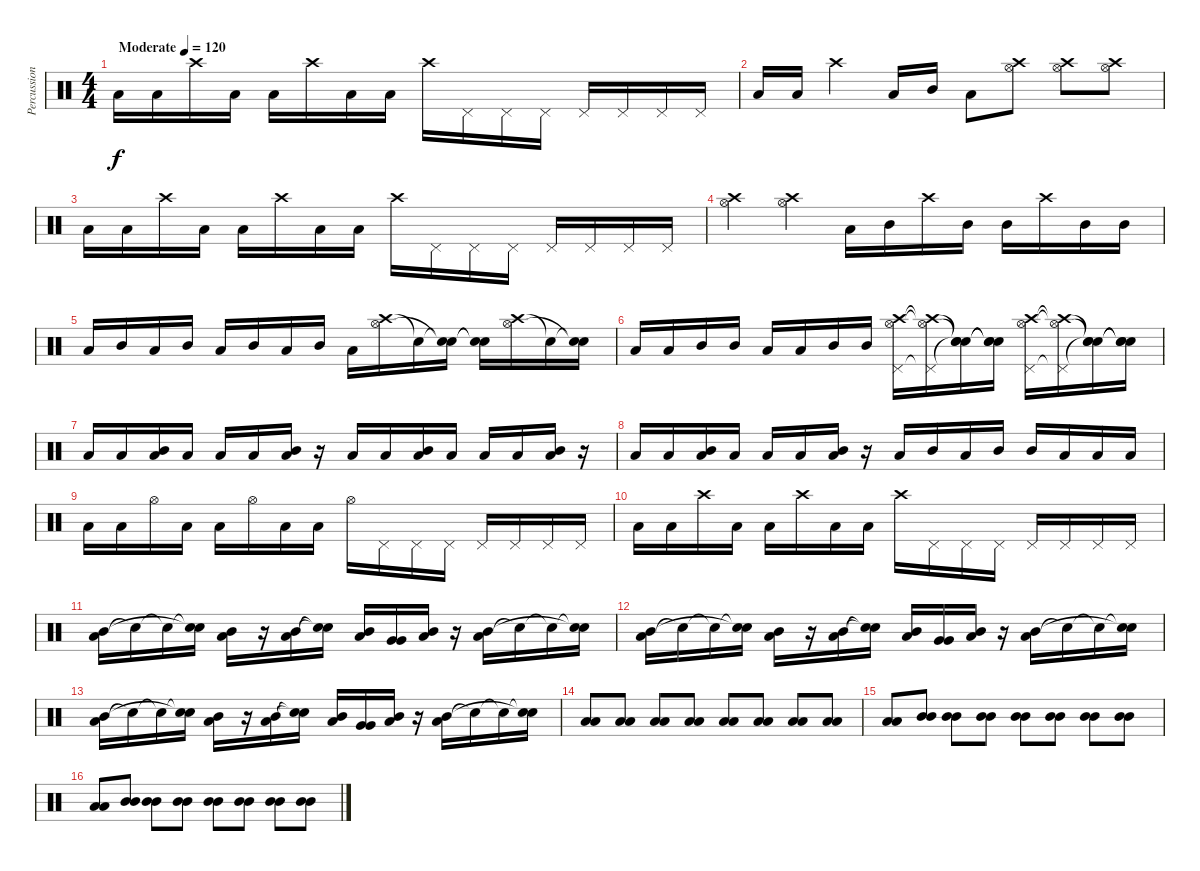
\track ("Percussion" "Percussion") {instrument percussion}
\staff {score}
\articulation defaults
\ts (4 4)
\tempo (120 "Moderate")
\clef neutral
\ks c "Low Tom (hit)".16{dy f} "Low Tom (hit)".16 "Crash high (hit)".16 "Low Tom (hit)".16 "Low Tom (hit)".16 "Crash high (hit)".16 "Low Tom (hit)".16 "Low Tom (hit)".16 "Crash high (hit)".16 "Pedal Hi-Hat (hit)".16 "Pedal Hi-Hat (hit)".16 "Pedal Hi-Hat (hit)".16 "Pedal Hi-Hat (hit)".16 "Pedal Hi-Hat (hit)".16 "Pedal Hi-Hat (hit)".16 "Pedal Hi-Hat (hit)".16
|
"Low Tom (hit)".16 "Low Tom (hit)".16 "Crash high (hit)".4 "Low Tom (hit)".16 "Mid Tom (hit)".16 "Low Tom (hit)".8 ("Hi-Hat (open)" "Crash high (hit)").8 ("Hi-Hat (open)" "Crash high (hit)").8 ("Hi-Hat (open)" "Crash high (hit)").8 |
"Low Tom (hit)".16 "Low Tom (hit)".16 "Crash high (hit)".16 "Low Tom (hit)".16 "Low Tom (hit)".16 "Crash high (hit)".16 "Low Tom (hit)".16 "Low Tom (hit)".16 "Crash high (hit)".16 "Pedal Hi-Hat (hit)".16 "Pedal Hi-Hat (hit)".16 "Pedal Hi-Hat (hit)".16 "Pedal Hi-Hat (hit)".16 "Pedal Hi-Hat (hit)".16 "Pedal Hi-Hat (hit)".16 "Pedal Hi-Hat (hit)".16 |
("Crash high (hit)" "Hi-Hat (open)").4 ("Crash high (hit)" "Hi-Hat (open)").4 "Low Tom (hit)".16 "Mid Tom (hit)".16 "Crash high (hit)".16 "Mid Tom (hit)".16 "Mid Tom (hit)".16 "Crash high (hit)".16 "Mid Tom (hit)".16 "Mid Tom (hit)".16 |
"Low Tom (hit)".16 "Mid Tom (hit)".16 "Low Tom (hit)".16 "Mid Tom (hit)".16 "Low Tom (hit)".16 "Mid Tom (hit)".16 "Low Tom (hit)".16 "Mid Tom (hit)".16 "Low Tom (hit)".16 ("Crash high (hit)" "Hi-Hat (open)").16 "Snare (hit)"{t}.16 ("Snare (hit)"{t} "Snare (hit)"{t}).16 ("Snare (hit)"{t} "Snare (hit)"{t}).16 ("Crash high (hit)" "Hi-Hat (open)").16 "Snare (hit)"{t}.16 ("Snare (hit)"{t} "Snare (hit)"{t}).16 |
"Low Tom (hit)".16 "Low Tom (hit)".16 "Mid Tom (hit)".16 "Mid Tom (hit)".16 "Low Tom (hit)".16 "Low Tom (hit)".16 "Mid Tom (hit)".16 "Mid Tom (hit)".16 ("Crash high (hit)" "Hi-Hat (open)" "Pedal Hi-Hat (hit)").16 ("Crash high (hit)"{t} "Hi-Hat (open)"{t} "Pedal Hi-Hat (hit)"{t}).16 ("Snare (hit)"{t} "Snare (hit)"{t} "Snare (hit)"{t}).16 ("Snare (hit)"{t} "Snare (hit)"{t} "Snare (hit)"{t}).16 ("Crash high (hit)" "Hi-Hat (open)" "Pedal Hi-Hat (hit)").16 ("Crash high (hit)"{t} "Hi-Hat (open)"{t} "Pedal Hi-Hat (hit)"{t}).16 ("Snare (hit)"{t} "Snare (hit)"{t} "Snare (hit)"{t}).16 ("Snare (hit)"{t} "Snare (hit)"{t} "Snare (hit)"{t}).16 |
"Low Tom (hit)".16 "Low Tom (hit)".16 ("Low Tom (hit)" "Mid Tom (hit)").16 "Low Tom (hit)".16 "Low Tom (hit)".16 "Low Tom (hit)".16 ("Mid Tom (hit)" "Low Tom (hit)").16 r.16 "Low Tom (hit)".16 "Low Tom (hit)".16 ("Mid Tom (hit)" "Low Tom (hit)").16 "Low Tom (hit)".16 "Low Tom (hit)".16 "Low Tom (hit)".16 ("Mid Tom (hit)" "Low Tom (hit)").16 r.16 |
"Low Tom (hit)".16 "Low Tom (hit)".16 ("Low Tom (hit)" "Mid Tom (hit)").16 "Low Tom (hit)".16 "Low Tom (hit)".16 "Low Tom (hit)".16 ("Mid Tom (hit)" "Low Tom (hit)").16 r.16 "Low Tom (hit)".16 "Mid Tom (hit)".16 "Low Tom (hit)".16 "Mid Tom (hit)".16 "Mid Tom (hit)".16 "Low Tom (hit)".16 "Low Tom (hit)".16 "Low Tom (hit)".16 |
"Low Tom (hit)".16 "Low Tom (hit)".16 "Hi-Hat (open)".16 "Low Tom (hit)".16 "Low Tom (hit)".16 "Hi-Hat (open)".16 "Low Tom (hit)".16 "Low Tom (hit)".16 "Hi-Hat (open)".16 "Pedal Hi-Hat (hit)".16 "Pedal Hi-Hat (hit)".16 "Pedal Hi-Hat (hit)".16 "Pedal Hi-Hat (hit)".16 "Pedal Hi-Hat (hit)".16 "Pedal Hi-Hat (hit)".16 "Pedal Hi-Hat (hit)".16 |
"Low Tom (hit)".16 "Low Tom (hit)".16 "Crash high (hit)".16 "Low Tom (hit)".16 "Low Tom (hit)".16 "Crash high (hit)".16 "Low Tom (hit)".16 "Low Tom (hit)".16 "Crash high (hit)".16 "Pedal Hi-Hat (hit)".16 "Pedal Hi-Hat (hit)".16 "Pedal Hi-Hat (hit)".16 "Pedal Hi-Hat (hit)".16 "Pedal Hi-Hat (hit)".16 "Pedal Hi-Hat (hit)".16 "Pedal Hi-Hat (hit)".16 |
("Low Tom (hit)" "Mid Tom (hit)").16 "Snare (hit)"{t}.16 "Snare (hit)"{t}.16 ("Snare (hit)"{t} "Snare (hit)"{t}).16 ("Low Tom (hit)" "Mid Tom (hit)").16 r.16 ("Low Tom (hit)" "Mid Tom (hit)").16 ("Snare (hit)"{t} "Snare (hit)"{t}).16 ("Low Tom (hit)" "Mid Tom (hit)").16 ("Very Low Tom (hit)" "Very Low Tom (hit)").16 ("Low Tom (hit)" "Mid Tom (hit)").16 r.16 ("Low Tom (hit)" "Mid Tom (hit)").16 "Snare (hit)"{t}.16 "Snare (hit)"{t}.16 ("Snare (hit)"{t} "Snare (hit)"{t}).16 |
("Low Tom (hit)" "Mid Tom (hit)").16 "Snare (hit)"{t}.16 "Snare (hit)"{t}.16 ("Snare (hit)"{t} "Snare (hit)"{t}).16 ("Low Tom (hit)" "Mid Tom (hit)").16 r.16 ("Low Tom (hit)" "Mid Tom (hit)").16 ("Snare (hit)"{t} "Snare (hit)"{t}).16 ("Low Tom (hit)" "Mid Tom (hit)").16 ("Very Low Tom (hit)" "Very Low Tom (hit)").16 ("Low Tom (hit)" "Mid Tom (hit)").16 r.16 ("Low Tom (hit)" "Mid Tom (hit)").16 "Snare (hit)"{t}.16 "Snare (hit)"{t}.16 ("Snare (hit)"{t} "Snare (hit)"{t}).16 |
("Low Tom (hit)" "Mid Tom (hit)").16 "Snare (hit)"{t}.16 "Snare (hit)"{t}.16 ("Snare (hit)"{t} "Snare (hit)"{t}).16 ("Low Tom (hit)" "Mid Tom (hit)").16 r.16 ("Low Tom (hit)" "Mid Tom (hit)").16 ("Snare (hit)"{t} "Snare (hit)"{t}).16 ("Low Tom (hit)" "Mid Tom (hit)").16 ("Very Low Tom (hit)" "Very Low Tom (hit)").16 ("Low Tom (hit)" "Mid Tom (hit)").16 r.16 ("Low Tom (hit)" "Mid Tom (hit)").16 "Snare (hit)"{t}.16 "Snare (hit)"{t}.16 ("Snare (hit)"{t} "Snare (hit)"{t}).16 |
("Low Tom (hit)" "Low Tom (hit)").8 ("Low Tom (hit)" "Low Tom (hit)").8 ("Low Tom (hit)" "Low Tom (hit)").8 ("Low Tom (hit)" "Low Tom (hit)").8 ("Low Tom (hit)" "Low Tom (hit)").8 ("Low Tom (hit)" "Low Tom (hit)").8 ("Low Tom (hit)" "Low Tom (hit)").8 ("Low Tom (hit)" "Low Tom (hit)").8 |
("Low Tom (hit)" "Low Tom (hit)").8 ("Mid Tom (hit)" "Mid Tom (hit)").8 ("Mid Tom (hit)" "Mid Tom (hit)").8 ("Mid Tom (hit)" "Mid Tom (hit)").8 ("Mid Tom (hit)" "Mid Tom (hit)").8 ("Mid Tom (hit)" "Mid Tom (hit)").8 ("Mid Tom (hit)" "Mid Tom (hit)").8 ("Mid Tom (hit)" "Mid Tom (hit)").8 |
("Low Tom (hit)" "Low Tom (hit)").8 ("Mid Tom (hit)" "Mid Tom (hit)").8 ("Mid Tom (hit)" "Mid Tom (hit)").8 ("Mid Tom (hit)" "Mid Tom (hit)").8 ("Mid Tom (hit)" "Mid Tom (hit)").8 ("Mid Tom (hit)" "Mid Tom (hit)").8 ("Mid Tom (hit)" "Mid Tom (hit)").8 ("Mid Tom (hit)" "Mid Tom (hit)").8
